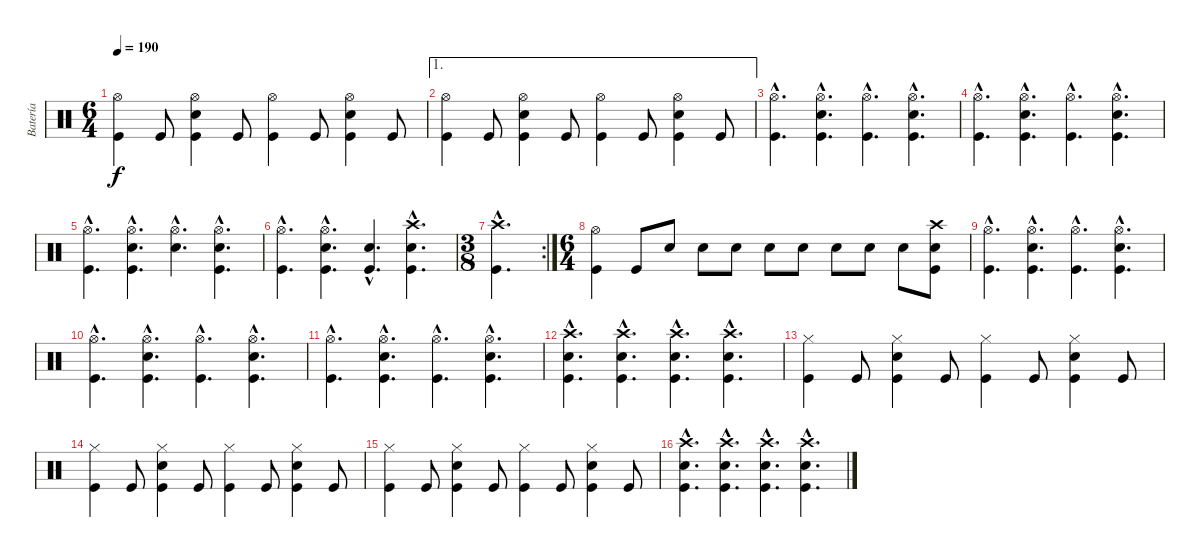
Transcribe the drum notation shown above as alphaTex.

\track ("Batería" "Batería") {instrument percussion}
\staff {score}
\articulation defaults
\ts (6 4)
\tempo 190
\clef neutral
\ks c
("Hi-Hat (open)" "Kick (hit)").4{dy f} "Kick (hit)".8 ("Kick (hit)" "Hi-Hat (open)" "Snare (hit) 2").4 "Kick (hit)".8 ("Hi-Hat (open)" "Kick (hit)").4 "Kick (hit)".8 ("Kick (hit)" "Hi-Hat (open)" "Snare (hit) 2").4 "Kick (hit)".8 |
\ae 1
("Hi-Hat (open)" "Kick (hit)").4 "Kick (hit)".8 ("Kick (hit)" "Hi-Hat (open)" "Snare (hit) 2").4 "Kick (hit)".8 ("Hi-Hat (open)" "Kick (hit)").4 "Kick (hit)".8 ("Kick (hit)" "Hi-Hat (open)" "Snare (hit) 2").4 "Kick (hit)".8 |
("Hi-Hat (open)"{hac} "Kick (hit)"{hac}).4{d} ("Kick (hit)"{hac} "Hi-Hat (open)"{hac} "Snare (hit) 2"{hac}).4{d} ("Hi-Hat (open)"{hac} "Kick (hit)"{hac}).4{d} ("Kick (hit)"{hac} "Hi-Hat (open)"{hac} "Snare (hit) 2"{hac}).4{d} |
("Hi-Hat (open)"{hac} "Kick (hit)"{hac}).4{d} ("Kick (hit)"{hac} "Hi-Hat (open)"{hac} "Snare (hit) 2"{hac}).4{d} ("Hi-Hat (open)"{hac} "Kick (hit)"{hac}).4{d} ("Kick (hit)"{hac} "Hi-Hat (open)"{hac} "Snare (hit) 2"{hac}).4{d} |
("Hi-Hat (open)"{hac} "Kick (hit)"{hac}).4{d} ("Kick (hit)"{hac} "Hi-Hat (open)"{hac} "Snare (hit) 2"{hac}).4{d} ("Hi-Hat (open)"{hac} "Metronome (bell)"{hac}).4{d} ("Kick (hit)"{hac} "Hi-Hat (open)"{hac} "Snare (hit) 2"{hac}).4{d} |
("Hi-Hat (open)"{hac} "Kick (hit)"{hac}).4{d} ("Kick (hit)"{hac} "Hi-Hat (open)"{hac} "Snare (hit) 2"{hac}).4{d} ("Snare (hit) 2"{hac} "Kick (hit)"{hac}).4{d} ("Crash high (hit)"{hac} "Snare (hit) 2"{hac} "Kick (hit)"{hac}).4{d} |
\rc 2
\ts (3 8)
("Crash high (hit)"{hac} "Kick (hit)"{hac}).4{d} |
\ts (6 4)
("Hi-Hat (open)" "Kick (hit)").4 "Kick (hit)".8 "Snare (hit) 2".8 "Snare (hit) 2".8 "Hand Clap (hit)".8 "Snare (hit) 2".8 "Snare (hit) 2".8 "Snare (hit) 2".8 "Snare (hit) 2".8 "Snare (hit) 2".8 ("Crash high (hit)" "Snare (hit) 2" "Kick (hit)").8 |
("Hi-Hat (open)"{hac} "Kick (hit)"{hac}).4{d} ("Kick (hit)"{hac} "Hi-Hat (open)"{hac} "Snare (hit) 2"{hac}).4{d} ("Hi-Hat (open)"{hac} "Kick (hit)"{hac}).4{d} ("Kick (hit)"{hac} "Hi-Hat (open)"{hac} "Snare (hit) 2"{hac}).4{d} |
("Hi-Hat (open)"{hac} "Kick (hit)"{hac}).4{d} ("Kick (hit)"{hac} "Hi-Hat (open)"{hac} "Snare (hit) 2"{hac}).4{d} ("Hi-Hat (open)"{hac} "Kick (hit)"{hac}).4{d} ("Kick (hit)"{hac} "Hi-Hat (open)"{hac} "Snare (hit) 2"{hac}).4{d} |
("Hi-Hat (open)"{hac} "Kick (hit)"{hac}).4{d} ("Kick (hit)"{hac} "Hi-Hat (open)"{hac} "Snare (hit) 2"{hac}).4{d} ("Hi-Hat (open)"{hac} "Kick (hit)"{hac}).4{d} ("Kick (hit)"{hac} "Hi-Hat (open)"{hac} "Snare (hit) 2"{hac}).4{d} |
("Crash high (hit)"{hac} "Kick (hit)"{hac} "Snare (hit) 2"{hac}).4{d} ("Crash high (hit)"{hac} "Kick (hit)"{hac} "Snare (hit) 2"{hac}).4{d} ("Crash high (hit)"{hac} "Kick (hit)"{hac} "Snare (hit) 2"{hac}).4{d} ("Crash high (hit)"{hac} "Kick (hit)"{hac} "Snare (hit) 2"{hac}).4{d} |
("Hi-Hat (closed)" "Kick (hit)").4 "Kick (hit)".8 ("Kick (hit)" "Hi-Hat (closed)" "Snare (hit) 2").4 "Kick (hit)".8 ("Hi-Hat (closed)" "Kick (hit)").4 "Kick (hit)".8 ("Kick (hit)" "Hi-Hat (closed)" "Snare (hit) 2").4 "Kick (hit)".8 |
("Hi-Hat (closed)" "Kick (hit)").4 "Kick (hit)".8 ("Kick (hit)" "Hi-Hat (closed)" "Snare (hit) 2").4 "Kick (hit)".8 ("Hi-Hat (closed)" "Kick (hit)").4 "Kick (hit)".8 ("Kick (hit)" "Hi-Hat (closed)" "Snare (hit) 2").4 "Kick (hit)".8 |
("Hi-Hat (closed)" "Kick (hit)").4 "Kick (hit)".8 ("Kick (hit)" "Hi-Hat (closed)" "Snare (hit) 2").4 "Kick (hit)".8 ("Hi-Hat (closed)" "Kick (hit)").4 "Kick (hit)".8 ("Kick (hit)" "Hi-Hat (closed)" "Snare (hit) 2").4 "Kick (hit)".8 |
("Crash high (hit)"{hac} "Kick (hit)"{hac} "Snare (hit) 2"{hac}).4{d} ("Crash high (hit)"{hac} "Kick (hit)"{hac} "Snare (hit) 2"{hac}).4{d} ("Crash high (hit)"{hac} "Kick (hit)"{hac} "Snare (hit) 2"{hac}).4{d} ("Crash high (hit)"{hac} "Kick (hit)"{hac} "Snare (hit) 2"{hac}).4{d}
